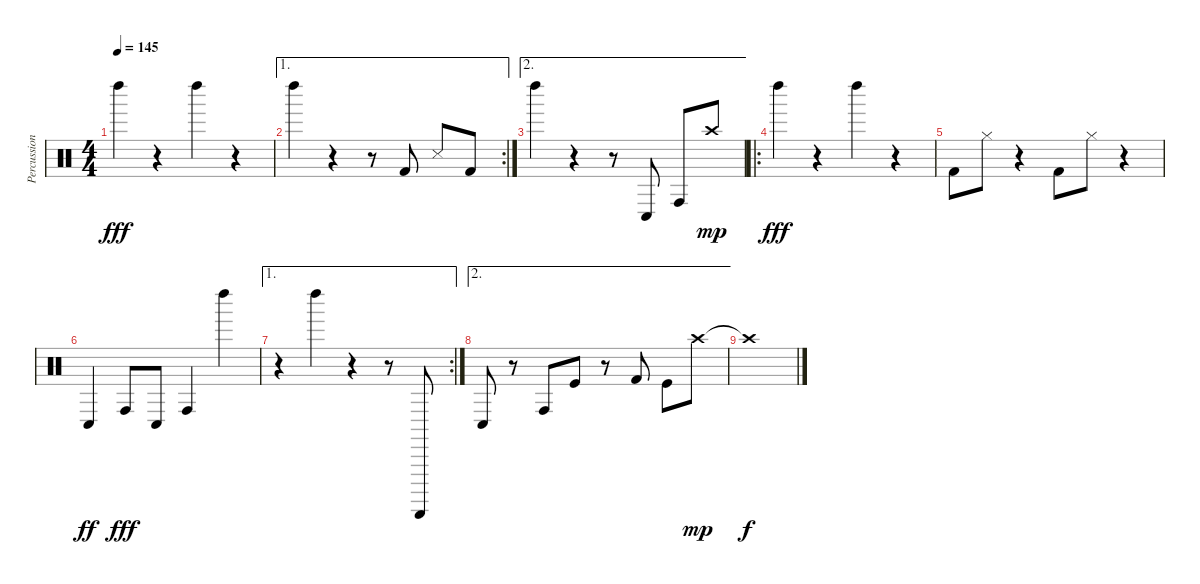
\track ("Percussions" "Percussion") {instrument percussion}
\staff {score}
\articulation defaults
\ts (4 4)
\tempo 145
\clef neutral
\ks c "Left Maraca (hit)".4{dy fff balance 14}
r.4 "Left Maraca (hit)".4{balance 14} r.4 |
\ae 1
\rc 2 "Left Maraca (hit)".4{balance 14}
r.4 r.8 "Kick (hit) 2".8{balance 2} "Snare (side stick) 3".8{balance 4} "Kick (hit) 2".8{balance 6} |
\ae 2 "Left Maraca (hit)".4{balance 14}
r.4 r.8 "Conga low (hit)".8{balance 2} "Conga high (hit)".8{balance 4} "Crash high (hit)".8{dy mp balance 16} |
\ro "Left Maraca (hit)".4{dy fff balance 14}
r.4 "Left Maraca (hit)".4{balance 14} r.4 |
"Kick (hit) 2".8{balance 10} "Hi-Hat (closed)".8{balance 6} r.4 "Kick (hit) 2".8{balance 10} "Hi-Hat (closed)".8{balance 6} r.4 |
"Conga low (hit)".4{dy ff balance 2} "Conga high (hit)".8{dy fff balance 4} "Conga low (hit)".8{balance 2} "Conga high (hit)".4{balance 4} "Left Maraca (hit)".4{balance 14} |
\ae 1
\rc 2
r.4 "Left Maraca (hit)".4{balance 14} r.4 r.8 "Guiro (scrap-return)".8{balance 0} |
\ae 2 "Conga low (hit)".8{balance 2}
r.8 "Conga high (hit)".8{balance 4} "Kick (hit)".8{balance 12} r.8 "Kick (hit) 2".8{balance 10} "Kick (hit)".8{balance 12} "Crash high (hit)".8{dy mp balance 16} |
"Crash high (hit)"{t}.1{dy f}
